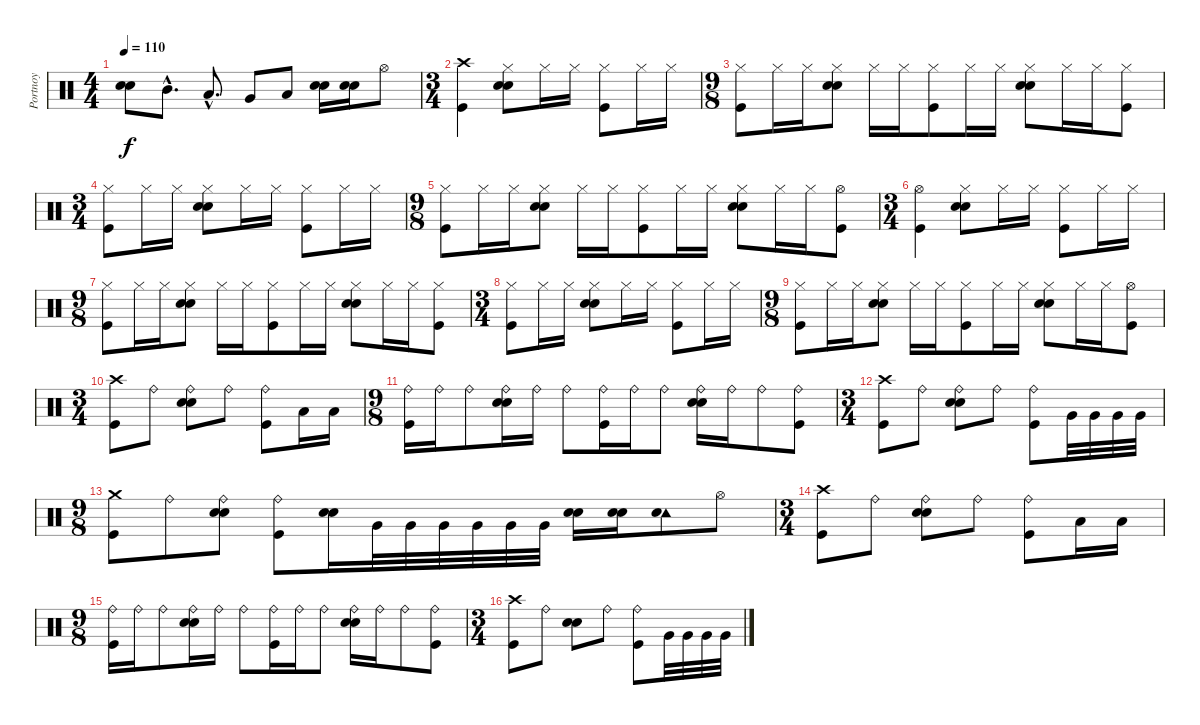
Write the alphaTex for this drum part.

\track ("Portnoy" "Portnoy") {instrument percussion}
\staff {score}
\articulation defaults
\ts (4 4)
\tempo 110
\clef neutral
\ks c
("Snare (hit) 2" "Electric Snare (hit)").8{dy f} "Mid Tom (hit)"{hac}.8{d} "Low Tom (hit)"{hac}.8{d} "Very Low Tom (hit)".8 "Low Floor Tom (hit)".8 ("Snare (hit) 2" "Electric Snare (hit)").16 ("Snare (hit) 2" "Electric Snare (hit)").16 "Hi-Hat (open)".8 |
\ts (3 4)
("Crash high (hit)" "Kick (hit)").4 ("Hi-Hat (closed)" "Snare (hit) 2" "Electric Snare (hit)").8 "Hi-Hat (closed)".16 "Hi-Hat (closed)".16 ("Hi-Hat (closed)" "Kick (hit)").8 "Hi-Hat (closed)".16 "Hi-Hat (closed)".16 |
\ts (9 8)
("Hi-Hat (closed)" "Kick (hit)").8 "Hi-Hat (closed)".16 "Hi-Hat (closed)".16 ("Hi-Hat (closed)" "Snare (hit) 2" "Electric Snare (hit)").8 "Hi-Hat (closed)".16 "Hi-Hat (closed)".16 ("Hi-Hat (closed)" "Kick (hit)").8 "Hi-Hat (closed)".16 "Hi-Hat (closed)".16 ("Hi-Hat (closed)" "Snare (hit) 2" "Electric Snare (hit)").8 "Hi-Hat (closed)".16 "Hi-Hat (closed)".16 ("Hi-Hat (closed)" "Kick (hit)").8 |
\ts (3 4)
("Hi-Hat (closed)" "Kick (hit)").8 "Hi-Hat (closed)".16 "Hi-Hat (closed)".16 ("Hi-Hat (closed)" "Snare (hit) 2" "Electric Snare (hit)").8 "Hi-Hat (closed)".16 "Hi-Hat (closed)".16 ("Hi-Hat (closed)" "Kick (hit)").8 "Hi-Hat (closed)".16 "Hi-Hat (closed)".16 |
\ts (9 8)
("Hi-Hat (closed)" "Kick (hit)").8 "Hi-Hat (closed)".16 "Hi-Hat (closed)".16 ("Hi-Hat (closed)" "Snare (hit) 2" "Electric Snare (hit)").8 "Hi-Hat (closed)".16 "Hi-Hat (closed)".16 ("Hi-Hat (closed)" "Kick (hit)").8 "Hi-Hat (closed)".16 "Hi-Hat (closed)".16 ("Hi-Hat (closed)" "Snare (hit) 2" "Electric Snare (hit)").8 "Hi-Hat (closed)".16 "Hi-Hat (closed)".16 ("Hi-Hat (open)" "Kick (hit)").8 |
\ts (3 4)
("Hi-Hat (open)" "Kick (hit)").4 ("Hi-Hat (closed)" "Snare (hit) 2" "Electric Snare (hit)").8 "Hi-Hat (closed)".16 "Hi-Hat (closed)".16 ("Hi-Hat (closed)" "Kick (hit)").8 "Hi-Hat (closed)".16 "Hi-Hat (closed)".16 |
\ts (9 8)
("Hi-Hat (closed)" "Kick (hit)").8 "Hi-Hat (closed)".16 "Hi-Hat (closed)".16 ("Hi-Hat (closed)" "Snare (hit) 2" "Electric Snare (hit)").8 "Hi-Hat (closed)".16 "Hi-Hat (closed)".16 ("Hi-Hat (closed)" "Kick (hit)").8 "Hi-Hat (closed)".16 "Hi-Hat (closed)".16 ("Hi-Hat (closed)" "Snare (hit) 2" "Electric Snare (hit)").8 "Hi-Hat (closed)".16 "Hi-Hat (closed)".16 ("Hi-Hat (closed)" "Kick (hit)").8 |
\ts (3 4)
("Hi-Hat (closed)" "Kick (hit)").8 "Hi-Hat (closed)".16 "Hi-Hat (closed)".16 ("Hi-Hat (closed)" "Snare (hit) 2" "Electric Snare (hit)").8 "Hi-Hat (closed)".16 "Hi-Hat (closed)".16 ("Hi-Hat (closed)" "Kick (hit)").8 "Hi-Hat (closed)".16 "Hi-Hat (closed)".16 |
\ts (9 8)
("Hi-Hat (closed)" "Kick (hit)").8 "Hi-Hat (closed)".16 "Hi-Hat (closed)".16 ("Hi-Hat (closed)" "Snare (hit) 2" "Electric Snare (hit)").8 "Hi-Hat (closed)".16 "Hi-Hat (closed)".16 ("Hi-Hat (closed)" "Kick (hit)").8 "Hi-Hat (closed)".16 "Hi-Hat (closed)".16 ("Hi-Hat (closed)" "Snare (hit) 2" "Electric Snare (hit)").8 "Hi-Hat (closed)".16 "Hi-Hat (closed)".16 ("Hi-Hat (open)" "Kick (hit)").8 |
\ts (3 4)
("Crash high (hit)" "Kick (hit)").8 "Ride (bell)".8 ("Ride (bell)" "Snare (hit) 2" "Electric Snare (hit)").8 "Ride (bell)".8 ("Ride (bell)" "Kick (hit)").8 "Low Tom (hit)".16 "Low Tom (hit)".16 |
\ts (9 8)
("Ride (bell)" "Kick (hit)").16 "Ride (bell)".16 "Ride (bell)".8 ("Ride (bell)" "Snare (hit) 2" "Electric Snare (hit)").16 "Ride (bell)".16 "Ride (bell)".8 ("Ride (bell)" "Kick (hit)").16 "Ride (bell)".16 "Ride (bell)".8 ("Ride (bell)" "Snare (hit) 2" "Electric Snare (hit)").16 "Ride (bell)".16 "Ride (bell)".8 ("Ride (bell)" "Kick (hit)").8 |
\ts (3 4)
("Crash high (hit)" "Kick (hit)").8 "Ride (bell)".8 ("Ride (bell)" "Snare (hit) 2" "Electric Snare (hit)").8 "Ride (bell)".8 ("Ride (bell)" "Kick (hit)").8 "Very Low Tom (hit)".32 "Very Low Tom (hit)".32 "Very Low Tom (hit)".32 "Very Low Tom (hit)".32 |
\ts (9 8)
("Crash medium (hit)" "Kick (hit)").8 "Ride (bell)".8 ("Ride (bell)" "Snare (hit) 2" "Electric Snare (hit)").8 ("Ride (bell)" "Kick (hit)").8 ("Snare (hit) 2" "Electric Snare (hit)").16 "Very Low Tom (hit)".32 "Very Low Tom (hit)".32 "Very Low Tom (hit)".32 "Very Low Tom (hit)".32 "Very Low Tom (hit)".32 "Very Low Tom (hit)".32 ("Snare (hit) 2" "Electric Snare (hit)").16 ("Snare (hit) 2" "Electric Snare (hit)").16 ("Tambourine (hit)" "Metronome (bell)").8 "Hi-Hat (open)".8 |
\ts (3 4)
("Crash high (hit)" "Kick (hit)").8 "Ride (bell)".8 ("Ride (bell)" "Snare (hit) 2" "Electric Snare (hit)").8 "Ride (bell)".8 ("Ride (bell)" "Kick (hit)").8 "Low Tom (hit)".16 "Low Tom (hit)".16 |
\ts (9 8)
("Ride (bell)" "Kick (hit)").16 "Ride (bell)".16 "Ride (bell)".8 ("Ride (bell)" "Snare (hit) 2" "Electric Snare (hit)").16 "Ride (bell)".16 "Ride (bell)".8 ("Ride (bell)" "Kick (hit)").16 "Ride (bell)".16 "Ride (bell)".8 ("Ride (bell)" "Snare (hit) 2" "Electric Snare (hit)").16 "Ride (bell)".16 "Ride (bell)".8 ("Ride (bell)" "Kick (hit)").8 |
\ts (3 4)
("Crash high (hit)" "Kick (hit)").8 "Ride (bell)".8 ("Snare (hit) 2" "Electric Snare (hit)").8 "Ride (bell)".8 ("Ride (bell)" "Kick (hit)").8 "Very Low Tom (hit)".32 "Very Low Tom (hit)".32 "Very Low Tom (hit)".32 "Very Low Tom (hit)".32
